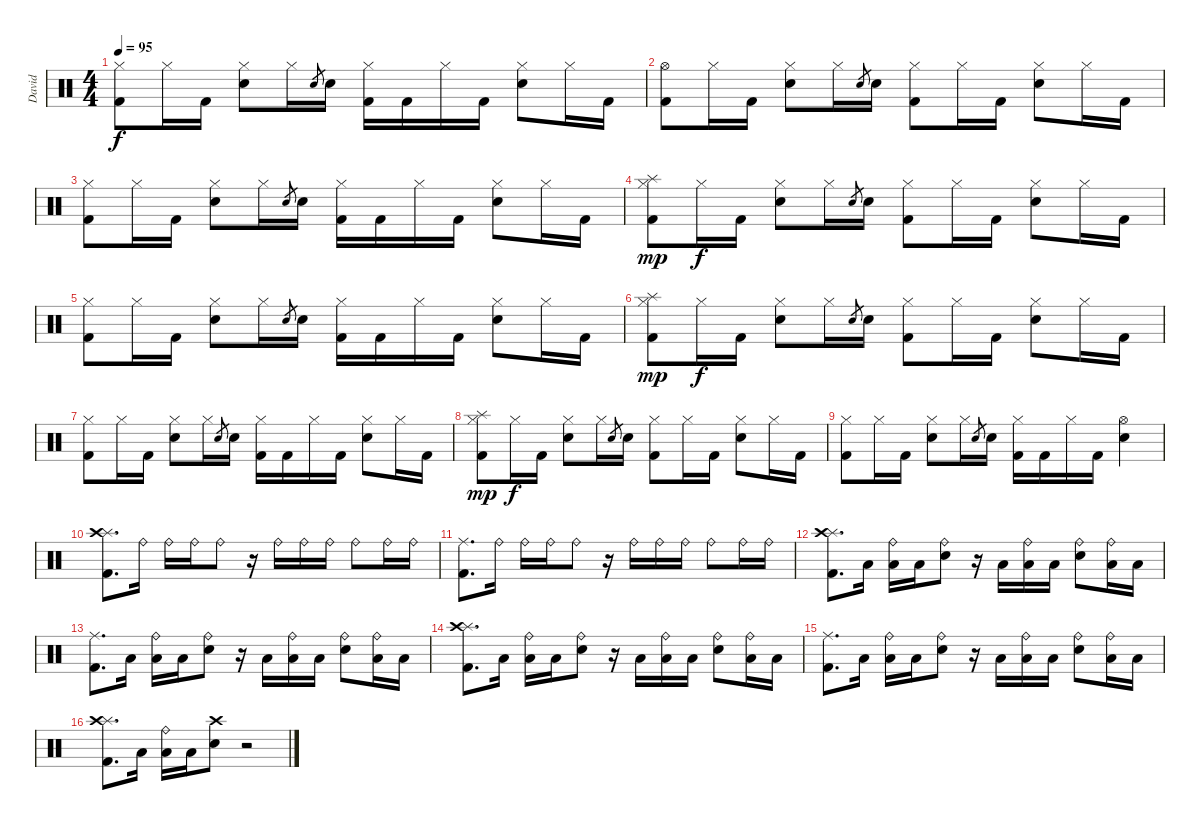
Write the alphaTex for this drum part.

\track ("David" "David") {instrument percussion}
\staff {score}
\articulation defaults
\ts (4 4)
\tempo 95
\clef neutral
\ks c
("Hi-Hat (closed)" "Kick (hit) 2").8{dy f} "Hi-Hat (closed)".16 "Kick (hit) 2".16 ("Hi-Hat (closed)" "Electric Snare (hit)").8 "Hi-Hat (closed)".16 "Electric Snare (hit)".8{gr} "Electric Snare (hit)".16 ("Hi-Hat (closed)" "Kick (hit) 2").16 "Kick (hit) 2".16 "Hi-Hat (closed)".16 "Kick (hit) 2".16 ("Hi-Hat (closed)" "Electric Snare (hit)").8 "Hi-Hat (closed)".16 "Kick (hit) 2".16 |
("Hi-Hat (open)" "Kick (hit) 2").8 "Hi-Hat (closed)".16 "Kick (hit) 2".16 ("Hi-Hat (closed)" "Electric Snare (hit)").8 "Hi-Hat (closed)".16 "Electric Snare (hit)".8{gr} "Electric Snare (hit)".16 ("Hi-Hat (closed)" "Kick (hit) 2").8 "Hi-Hat (closed)".16 "Kick (hit) 2".16 ("Hi-Hat (closed)" "Electric Snare (hit)").8 "Hi-Hat (closed)".16 "Kick (hit) 2".16 |
("Hi-Hat (closed)" "Kick (hit) 2").8 "Hi-Hat (closed)".16 "Kick (hit) 2".16 ("Hi-Hat (closed)" "Electric Snare (hit)").8 "Hi-Hat (closed)".16 "Electric Snare (hit)".8{gr} "Electric Snare (hit)".16 ("Hi-Hat (closed)" "Kick (hit) 2").16 "Kick (hit) 2".16 "Hi-Hat (closed)".16 "Kick (hit) 2".16 ("Hi-Hat (closed)" "Electric Snare (hit)").8 "Hi-Hat (closed)".16 "Kick (hit) 2".16 |
("Hi-Hat (closed)" "Splash (hit)" "Kick (hit) 2").8{dy mp} "Hi-Hat (closed)".16{dy f} "Kick (hit) 2".16 ("Hi-Hat (closed)" "Electric Snare (hit)").8 "Hi-Hat (closed)".16 "Electric Snare (hit)".8{gr} "Electric Snare (hit)".16 ("Hi-Hat (closed)" "Kick (hit) 2").8 "Hi-Hat (closed)".16 "Kick (hit) 2".16 ("Hi-Hat (closed)" "Electric Snare (hit)").8 "Hi-Hat (closed)".16 "Kick (hit) 2".16 |
("Hi-Hat (closed)" "Kick (hit) 2").8 "Hi-Hat (closed)".16 "Kick (hit) 2".16 ("Hi-Hat (closed)" "Electric Snare (hit)").8 "Hi-Hat (closed)".16 "Electric Snare (hit)".8{gr} "Electric Snare (hit)".16 ("Hi-Hat (closed)" "Kick (hit) 2").16 "Kick (hit) 2".16 "Hi-Hat (closed)".16 "Kick (hit) 2".16 ("Hi-Hat (closed)" "Electric Snare (hit)").8 "Hi-Hat (closed)".16 "Kick (hit) 2".16 |
("Hi-Hat (closed)" "Splash (hit)" "Kick (hit) 2").8{dy mp} "Hi-Hat (closed)".16{dy f} "Kick (hit) 2".16 ("Hi-Hat (closed)" "Electric Snare (hit)").8 "Hi-Hat (closed)".16 "Electric Snare (hit)".8{gr} "Electric Snare (hit)".16 ("Hi-Hat (closed)" "Kick (hit) 2").8 "Hi-Hat (closed)".16 "Kick (hit) 2".16 ("Hi-Hat (closed)" "Electric Snare (hit)").8 "Hi-Hat (closed)".16 "Kick (hit) 2".16 |
("Hi-Hat (closed)" "Kick (hit) 2").8 "Hi-Hat (closed)".16 "Kick (hit) 2".16 ("Hi-Hat (closed)" "Electric Snare (hit)").8 "Hi-Hat (closed)".16 "Electric Snare (hit)".8{gr} "Electric Snare (hit)".16 ("Hi-Hat (closed)" "Kick (hit) 2").16 "Kick (hit) 2".16 "Hi-Hat (closed)".16 "Kick (hit) 2".16 ("Hi-Hat (closed)" "Electric Snare (hit)").8 "Hi-Hat (closed)".16 "Kick (hit) 2".16 |
("Hi-Hat (closed)" "Splash (hit)" "Kick (hit) 2").8{dy mp} "Hi-Hat (closed)".16{dy f} "Kick (hit) 2".16 ("Hi-Hat (closed)" "Electric Snare (hit)").8 "Hi-Hat (closed)".16 "Electric Snare (hit)".8{gr} "Electric Snare (hit)".16 ("Hi-Hat (closed)" "Kick (hit) 2").8 "Hi-Hat (closed)".16 "Kick (hit) 2".16 ("Hi-Hat (closed)" "Electric Snare (hit)").8 "Hi-Hat (closed)".16 "Kick (hit) 2".16 |
("Hi-Hat (closed)" "Kick (hit) 2").8 "Hi-Hat (closed)".16 "Kick (hit) 2".16 ("Hi-Hat (closed)" "Electric Snare (hit)").8 "Hi-Hat (closed)".16 "Electric Snare (hit)".8{gr} "Electric Snare (hit)".16 ("Hi-Hat (closed)" "Kick (hit) 2").16 "Kick (hit) 2".16 "Hi-Hat (closed)".16 "Kick (hit) 2".16 ("Hi-Hat (open)" "Electric Snare (hit)").4 |
("Splash (hit)" "Crash high (hit)" "Kick (hit) 2").8{d} "Ride (bell)".16 "Ride (bell)".16 "Ride (bell)".16 "Ride (bell)".8 r.16 "Ride (bell)".16 "Ride (bell)".16 "Ride (bell)".16 "Ride (bell)".8 "Ride (bell)".16 "Ride (bell)".16 |
("Ride (middle)" "Kick (hit) 2").8{d} "Ride (bell)".16 "Ride (bell)".16 "Ride (bell)".16 "Ride (bell)".8 r.16 "Ride (bell)".16 "Ride (bell)".16 "Ride (bell)".16 "Ride (bell)".8 "Ride (bell)".16 "Ride (bell)".16 |
("Splash (hit)" "Crash high (hit)" "Kick (hit) 2").8{d} "Low Floor Tom (hit)".16 ("Ride (bell)" "Low Floor Tom (hit)").16 "Low Floor Tom (hit)".16 ("Ride (bell)" "Electric Snare (hit)").8 r.16 "Low Floor Tom (hit)".16 ("Ride (bell)" "Low Floor Tom (hit)").16 "Low Floor Tom (hit)".16 ("Ride (bell)" "Electric Snare (hit)").8 ("Ride (bell)" "Low Floor Tom (hit)").16 "Low Floor Tom (hit)".16 |
("Ride (middle)" "Kick (hit) 2").8{d} "Low Floor Tom (hit)".16 ("Ride (bell)" "Low Floor Tom (hit)").16 "Low Floor Tom (hit)".16 ("Ride (bell)" "Electric Snare (hit)").8 r.16 "Low Floor Tom (hit)".16 ("Ride (bell)" "Low Floor Tom (hit)").16 "Low Floor Tom (hit)".16 ("Ride (bell)" "Electric Snare (hit)").8 ("Ride (bell)" "Low Floor Tom (hit)").16 "Low Floor Tom (hit)".16 |
("Splash (hit)" "Crash high (hit)" "Kick (hit) 2").8{d} "Low Floor Tom (hit)".16 ("Ride (bell)" "Low Floor Tom (hit)").16 "Low Floor Tom (hit)".16 ("Ride (bell)" "Electric Snare (hit)").8 r.16 "Low Floor Tom (hit)".16 ("Ride (bell)" "Low Floor Tom (hit)").16 "Low Floor Tom (hit)".16 ("Ride (bell)" "Electric Snare (hit)").8 ("Ride (bell)" "Low Floor Tom (hit)").16 "Low Floor Tom (hit)".16 |
("Ride (middle)" "Kick (hit) 2").8{d} "Low Floor Tom (hit)".16 ("Ride (bell)" "Low Floor Tom (hit)").16 "Low Floor Tom (hit)".16 ("Ride (bell)" "Electric Snare (hit)").8 r.16 "Low Floor Tom (hit)".16 ("Ride (bell)" "Low Floor Tom (hit)").16 "Low Floor Tom (hit)".16 ("Ride (bell)" "Electric Snare (hit)").8 ("Ride (bell)" "Low Floor Tom (hit)").16 "Low Floor Tom (hit)".16 |
("Splash (hit)" "Crash high (hit)" "Kick (hit) 2").8{d} "Low Floor Tom (hit)".16 ("Ride (bell)" "Low Floor Tom (hit)").16 "Low Floor Tom (hit)".16 ("Crash high (hit)" "Electric Snare (hit)").8 r.2
